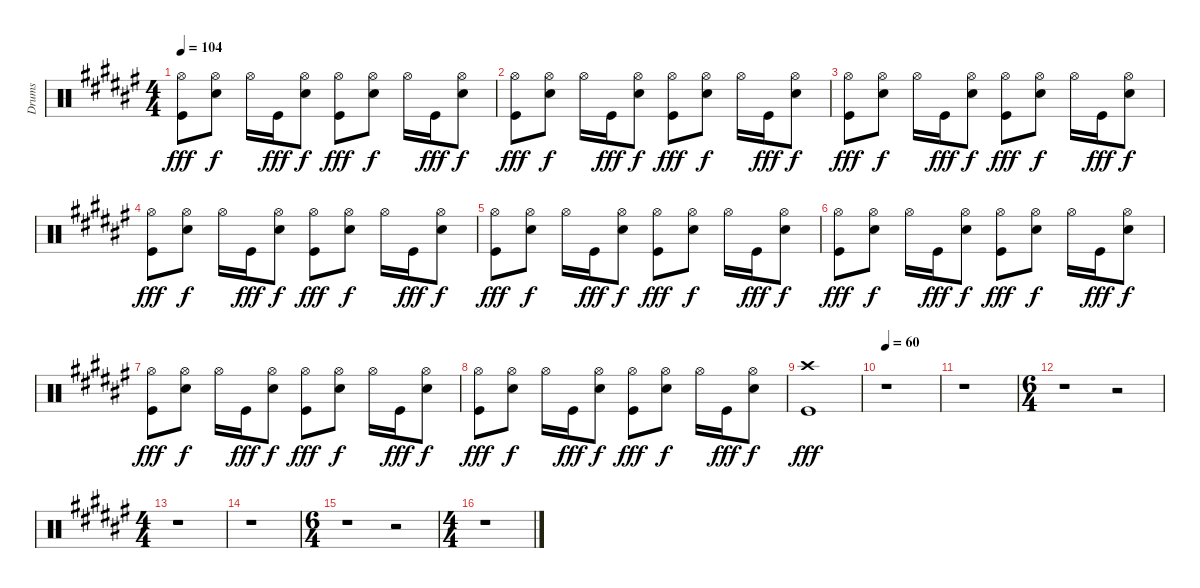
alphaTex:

\track ("Drums" "Drums") {instrument percussion}
\staff {score}
\articulation defaults
\ts (4 4)
\tempo 104
\clef neutral
\ks f#
("Hi-Hat (open)" "Kick (hit)").8{dy fff} ("Hi-Hat (open)" "Snare (hit) 2").8{dy f} "Hi-Hat (open)".16 "Kick (hit)".16{dy fff} ("Hi-Hat (open)" "Snare (hit) 2").8{dy f} ("Hi-Hat (open)" "Kick (hit)").8{dy fff} ("Hi-Hat (open)" "Snare (hit) 2").8{dy f} "Hi-Hat (open)".16 "Kick (hit)".16{dy fff} ("Hi-Hat (open)" "Snare (hit) 2").8{dy f} |
("Hi-Hat (open)" "Kick (hit)").8{dy fff} ("Hi-Hat (open)" "Snare (hit) 2").8{dy f} "Hi-Hat (open)".16 "Kick (hit)".16{dy fff} ("Hi-Hat (open)" "Snare (hit) 2").8{dy f} ("Hi-Hat (open)" "Kick (hit)").8{dy fff} ("Hi-Hat (open)" "Snare (hit) 2").8{dy f} "Hi-Hat (open)".16 "Kick (hit)".16{dy fff} ("Hi-Hat (open)" "Snare (hit) 2").8{dy f} |
("Hi-Hat (open)" "Kick (hit)").8{dy fff} ("Hi-Hat (open)" "Snare (hit) 2").8{dy f} "Hi-Hat (open)".16 "Kick (hit)".16{dy fff} ("Hi-Hat (open)" "Snare (hit) 2").8{dy f} ("Hi-Hat (open)" "Kick (hit)").8{dy fff} ("Hi-Hat (open)" "Snare (hit) 2").8{dy f} "Hi-Hat (open)".16 "Kick (hit)".16{dy fff} ("Hi-Hat (open)" "Snare (hit) 2").8{dy f} |
("Hi-Hat (open)" "Kick (hit)").8{dy fff} ("Hi-Hat (open)" "Snare (hit) 2").8{dy f} "Hi-Hat (open)".16 "Kick (hit)".16{dy fff} ("Hi-Hat (open)" "Snare (hit) 2").8{dy f} ("Hi-Hat (open)" "Kick (hit)").8{dy fff} ("Hi-Hat (open)" "Snare (hit) 2").8{dy f} "Hi-Hat (open)".16 "Kick (hit)".16{dy fff} ("Hi-Hat (open)" "Snare (hit) 2").8{dy f} |
("Hi-Hat (open)" "Kick (hit)").8{dy fff} ("Hi-Hat (open)" "Snare (hit) 2").8{dy f} "Hi-Hat (open)".16 "Kick (hit)".16{dy fff} ("Hi-Hat (open)" "Snare (hit) 2").8{dy f} ("Hi-Hat (open)" "Kick (hit)").8{dy fff} ("Hi-Hat (open)" "Snare (hit) 2").8{dy f} "Hi-Hat (open)".16 "Kick (hit)".16{dy fff} ("Hi-Hat (open)" "Snare (hit) 2").8{dy f} |
("Hi-Hat (open)" "Kick (hit)").8{dy fff} ("Hi-Hat (open)" "Snare (hit) 2").8{dy f} "Hi-Hat (open)".16 "Kick (hit)".16{dy fff} ("Hi-Hat (open)" "Snare (hit) 2").8{dy f} ("Hi-Hat (open)" "Kick (hit)").8{dy fff} ("Hi-Hat (open)" "Snare (hit) 2").8{dy f} "Hi-Hat (open)".16 "Kick (hit)".16{dy fff} ("Hi-Hat (open)" "Snare (hit) 2").8{dy f} |
("Hi-Hat (open)" "Kick (hit)").8{dy fff} ("Hi-Hat (open)" "Snare (hit) 2").8{dy f} "Hi-Hat (open)".16 "Kick (hit)".16{dy fff} ("Hi-Hat (open)" "Snare (hit) 2").8{dy f} ("Hi-Hat (open)" "Kick (hit)").8{dy fff} ("Hi-Hat (open)" "Snare (hit) 2").8{dy f} "Hi-Hat (open)".16 "Kick (hit)".16{dy fff} ("Hi-Hat (open)" "Snare (hit) 2").8{dy f} |
("Hi-Hat (open)" "Kick (hit)").8{dy fff} ("Hi-Hat (open)" "Snare (hit) 2").8{dy f} "Hi-Hat (open)".16 "Kick (hit)".16{dy fff} ("Hi-Hat (open)" "Snare (hit) 2").8{dy f} ("Hi-Hat (open)" "Kick (hit)").8{dy fff} ("Hi-Hat (open)" "Snare (hit) 2").8{dy f} "Hi-Hat (open)".16 "Kick (hit)".16{dy fff} ("Hi-Hat (open)" "Snare (hit) 2").8{dy f} |
("Crash high (hit)" "Kick (hit)").1{dy fff} |
\tempo 60
r.1 |
r.1 |
\ts (6 4)
r.1 r.2 |
\ts (4 4)
r.1 |
r.1 |
\ts (6 4)
r.1 r.2 |
\ts (4 4)
r.1
